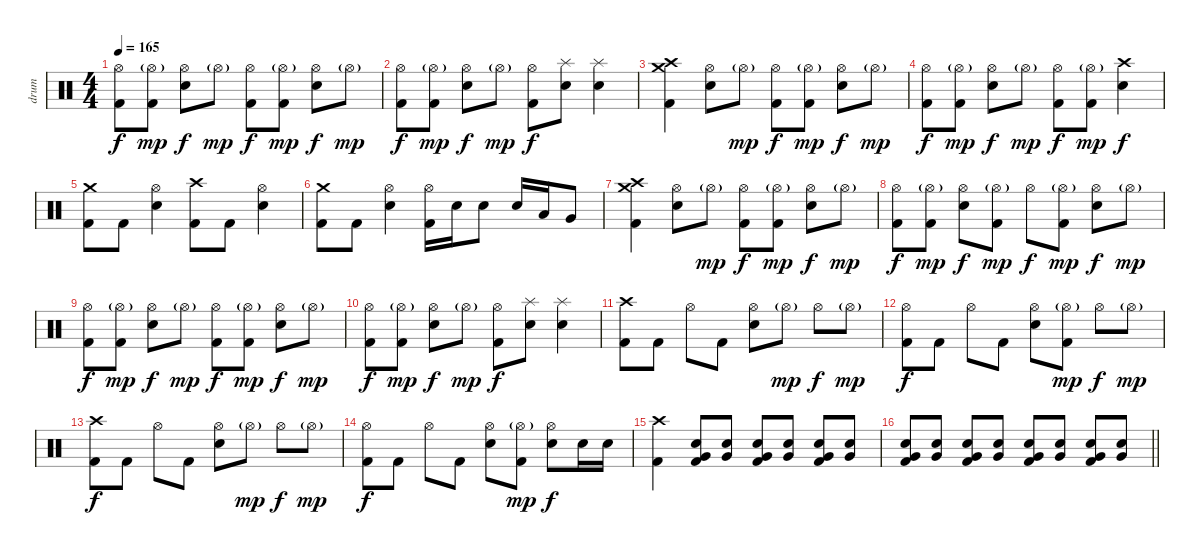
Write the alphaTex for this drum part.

\track ("drum" "drum") {instrument percussion}
\staff {score}
\articulation defaults
\ts (4 4)
\tempo 165
\clef neutral
\ks c
("Hi-Hat (open)" "Kick (hit) 2").8{dy f} ("Hi-Hat (open)"{g} "Kick (hit) 2").8{dy mp} ("Hi-Hat (open)" "Electric Snare (hit)").8{dy f} "Hi-Hat (open)"{g}.8{dy mp} ("Hi-Hat (open)" "Kick (hit) 2").8{dy f} ("Hi-Hat (open)"{g} "Kick (hit) 2").8{dy mp} ("Hi-Hat (open)" "Electric Snare (hit)").8{dy f} "Hi-Hat (open)"{g}.8{dy mp} |
("Hi-Hat (open)" "Kick (hit) 2").8{dy f} ("Hi-Hat (open)"{g} "Kick (hit) 2").8{dy mp} ("Hi-Hat (open)" "Electric Snare (hit)").8{dy f} "Hi-Hat (open)"{g}.8{dy mp} ("Hi-Hat (open)" "Kick (hit) 2").8{dy f} ("Splash (hit)" "Electric Snare (hit)").8 ("Splash (hit)" "Electric Snare (hit)").4 |
("Crash medium (hit)" "Crash high (hit)" "Kick (hit) 2").4 ("Hi-Hat (open)" "Electric Snare (hit)").8 "Hi-Hat (open)"{g}.8{dy mp} ("Hi-Hat (open)" "Kick (hit) 2").8{dy f} ("Hi-Hat (open)"{g} "Kick (hit) 2").8{dy mp} ("Hi-Hat (open)" "Electric Snare (hit)").8{dy f} "Hi-Hat (open)"{g}.8{dy mp} |
("Hi-Hat (open)" "Kick (hit) 2").8{dy f} ("Hi-Hat (open)"{g} "Kick (hit) 2").8{dy mp} ("Hi-Hat (open)" "Electric Snare (hit)").8{dy f} "Hi-Hat (open)"{g}.8{dy mp} ("Hi-Hat (open)" "Kick (hit) 2").8{dy f} ("Hi-Hat (open)"{g} "Kick (hit) 2").8{dy mp} ("Crash high (hit)" "Electric Snare (hit)").4{dy f} |
("Crash medium (hit)" "Kick (hit) 2").8 "Kick (hit) 2".8 ("Hi-Hat (open)" "Electric Snare (hit)").4 ("Crash high (hit)" "Kick (hit) 2").8 "Kick (hit) 2".8 ("Electric Snare (hit)" "Hi-Hat (open)").4 |
("Crash medium (hit)" "Kick (hit) 2").8 "Kick (hit) 2".8 ("Hi-Hat (open)" "Electric Snare (hit)").4 ("Hi-Hat (open)" "Kick (hit) 2").16 "Electric Snare (hit)".16 "Electric Snare (hit)".8 "Electric Snare (hit)".16 "Low Tom (hit)".16 "Very Low Tom (hit)".8 |
("Crash medium (hit)" "Crash high (hit)" "Kick (hit) 2").4 ("Hi-Hat (open)" "Electric Snare (hit)").8 "Hi-Hat (open)"{g}.8{dy mp} ("Hi-Hat (open)" "Kick (hit) 2").8{dy f} ("Hi-Hat (open)"{g} "Kick (hit) 2").8{dy mp} ("Hi-Hat (open)" "Electric Snare (hit)").8{dy f} "Hi-Hat (open)"{g}.8{dy mp} |
("Hi-Hat (open)" "Kick (hit) 2").8{dy f} ("Hi-Hat (open)"{g} "Kick (hit) 2").8{dy mp} ("Hi-Hat (open)" "Electric Snare (hit)").8{dy f} ("Hi-Hat (open)"{g} "Kick (hit) 2").8{dy mp} "Hi-Hat (open)".8{dy f} ("Hi-Hat (open)"{g} "Kick (hit) 2").8{dy mp} ("Hi-Hat (open)" "Electric Snare (hit)").8{dy f} "Hi-Hat (open)"{g}.8{dy mp} |
("Hi-Hat (open)" "Kick (hit) 2").8{dy f} ("Hi-Hat (open)"{g} "Kick (hit) 2").8{dy mp} ("Hi-Hat (open)" "Electric Snare (hit)").8{dy f} "Hi-Hat (open)"{g}.8{dy mp} ("Hi-Hat (open)" "Kick (hit) 2").8{dy f} ("Hi-Hat (open)"{g} "Kick (hit) 2").8{dy mp} ("Hi-Hat (open)" "Electric Snare (hit)").8{dy f} "Hi-Hat (open)"{g}.8{dy mp} |
("Hi-Hat (open)" "Kick (hit) 2").8{dy f} ("Hi-Hat (open)"{g} "Kick (hit) 2").8{dy mp} ("Hi-Hat (open)" "Electric Snare (hit)").8{dy f} "Hi-Hat (open)"{g}.8{dy mp} ("Hi-Hat (open)" "Kick (hit) 2").8{dy f} ("Splash (hit)" "Electric Snare (hit)").8 ("Splash (hit)" "Electric Snare (hit)").4 |
("Crash high (hit)" "Kick (hit) 2").8 "Kick (hit) 2".8 "Hi-Hat (open)".8 "Kick (hit) 2".8 ("Hi-Hat (open)" "Electric Snare (hit)").8 "Hi-Hat (open)"{g}.8{dy mp} "Hi-Hat (open)".8{dy f} "Hi-Hat (open)"{g}.8{dy mp} |
("Hi-Hat (open)" "Kick (hit) 2").8{dy f} "Kick (hit) 2".8 "Hi-Hat (open)".8 "Kick (hit) 2".8 ("Hi-Hat (open)" "Electric Snare (hit)").8 ("Hi-Hat (open)"{g} "Kick (hit) 2").8{dy mp} "Hi-Hat (open)".8{dy f} "Hi-Hat (open)"{g}.8{dy mp} |
("Crash high (hit)" "Kick (hit) 2").8{dy f} "Kick (hit) 2".8 "Hi-Hat (open)".8 "Kick (hit) 2".8 ("Hi-Hat (open)" "Electric Snare (hit)").8 "Hi-Hat (open)"{g}.8{dy mp} "Hi-Hat (open)".8{dy f} "Hi-Hat (open)"{g}.8{dy mp} |
("Hi-Hat (open)" "Kick (hit) 2").8{dy f} "Kick (hit) 2".8 "Hi-Hat (open)".8 "Kick (hit) 2".8 ("Hi-Hat (open)" "Electric Snare (hit)").8 ("Hi-Hat (open)"{g} "Kick (hit) 2").8{dy mp} ("Hi-Hat (open)" "Electric Snare (hit)").8{dy f} "Electric Snare (hit)".16 "Electric Snare (hit)".16 |
("Crash high (hit)" "Kick (hit) 2").4 ("Very Low Tom (hit)" "Electric Snare (hit)" "Kick (hit) 2").8 ("Very Low Tom (hit)" "Electric Snare (hit)").8 ("Very Low Tom (hit)" "Electric Snare (hit)" "Kick (hit) 2").8 ("Very Low Tom (hit)" "Electric Snare (hit)").8 ("Very Low Tom (hit)" "Electric Snare (hit)" "Kick (hit) 2").8 ("Very Low Tom (hit)" "Electric Snare (hit)").8 |
\barLineRight lightlight
("Very Low Tom (hit)" "Electric Snare (hit)" "Kick (hit) 2").8 ("Very Low Tom (hit)" "Electric Snare (hit)").8 ("Very Low Tom (hit)" "Electric Snare (hit)" "Kick (hit) 2").8 ("Very Low Tom (hit)" "Electric Snare (hit)").8 ("Very Low Tom (hit)" "Electric Snare (hit)" "Kick (hit) 2").8 ("Very Low Tom (hit)" "Electric Snare (hit)").8 ("Very Low Tom (hit)" "Electric Snare (hit)" "Kick (hit) 2").8 ("Very Low Tom (hit)" "Electric Snare (hit)").8
